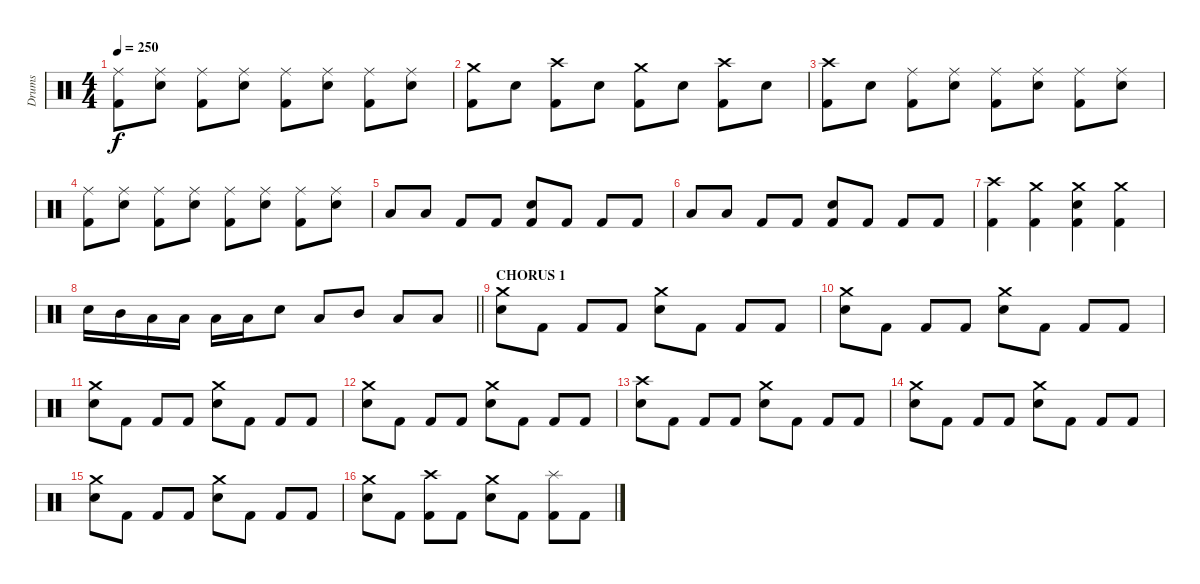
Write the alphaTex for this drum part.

\track ("Drums" "Drums") {instrument percussion}
\staff {score}
\articulation defaults
\ts (4 4)
\tempo 250
\clef neutral
\ks c
("Ride (middle)" "Kick (hit) 2").8{dy f} ("Ride (middle)" "Electric Snare (hit)").8 ("Ride (middle)" "Kick (hit) 2").8 ("Ride (middle)" "Electric Snare (hit)").8 ("Ride (middle)" "Kick (hit) 2").8 ("Ride (middle)" "Electric Snare (hit)").8 ("Ride (middle)" "Kick (hit) 2").8 ("Ride (middle)" "Electric Snare (hit)").8 |
("Crash medium (hit)" "Kick (hit) 2").8 "Electric Snare (hit)".8 ("Crash high (hit)" "Kick (hit) 2").8 "Electric Snare (hit)".8 ("Crash medium (hit)" "Kick (hit) 2").8 "Electric Snare (hit)".8 ("Crash high (hit)" "Kick (hit) 2").8 "Electric Snare (hit)".8 |
("Crash high (hit)" "Kick (hit) 2").8 "Electric Snare (hit)".8 ("Ride (middle)" "Kick (hit) 2").8 ("Ride (middle)" "Electric Snare (hit)").8 ("Ride (middle)" "Kick (hit) 2").8 ("Ride (middle)" "Electric Snare (hit)").8 ("Ride (middle)" "Kick (hit) 2").8 ("Ride (middle)" "Electric Snare (hit)").8 |
("Ride (middle)" "Kick (hit) 2").8 ("Ride (middle)" "Electric Snare (hit)").8 ("Ride (middle)" "Kick (hit) 2").8 ("Ride (middle)" "Electric Snare (hit)").8 ("Ride (middle)" "Kick (hit) 2").8 ("Ride (middle)" "Electric Snare (hit)").8 ("Ride (middle)" "Kick (hit) 2").8 ("Ride (middle)" "Electric Snare (hit)").8 |
"Low Tom (hit)".8 "Low Floor Tom (hit)".8 "Kick (hit) 2".8 "Kick (hit) 2".8 ("Electric Snare (hit)" "Kick (hit) 2").8 "Kick (hit) 2".8 "Kick (hit) 2".8 "Kick (hit) 2".8 |
"Low Tom (hit)".8 "Low Floor Tom (hit)".8 "Kick (hit) 2".8 "Kick (hit) 2".8 ("Electric Snare (hit)" "Kick (hit) 2").8 "Kick (hit) 2".8 "Kick (hit) 2".8 "Kick (hit) 2".8 |
("Crash high (hit)" "Kick (hit) 2").4 ("Crash medium (hit)" "Kick (hit) 2").4 ("Crash medium (hit)" "Electric Snare (hit)" "Kick (hit) 2").4 ("Crash medium (hit)" "Kick (hit) 2").4 |
\barLineRight lightlight "Electric Snare (hit)".16 "Mid Tom (hit)".16 "Low Floor Tom (hit)".16 "Low Floor Tom (hit)".16 "Low Tom (hit)".16 "Low Tom (hit)".16 "Electric Snare (hit)".8 "Low Floor Tom (hit)".8 "Mid Tom (hit)".8 "Low Tom (hit)".8 "Low Floor Tom (hit)".8
|
\section ("" "CHORUS 1")
("Crash medium (hit)" "Electric Snare (hit)").8 "Kick (hit) 2".8 "Kick (hit) 2".8 "Kick (hit) 2".8 ("Crash medium (hit)" "Electric Snare (hit)").8 "Kick (hit) 2".8 "Kick (hit) 2".8 "Kick (hit) 2".8 |
("Crash medium (hit)" "Electric Snare (hit)").8 "Kick (hit) 2".8 "Kick (hit) 2".8 "Kick (hit) 2".8 ("Crash medium (hit)" "Electric Snare (hit)").8 "Kick (hit) 2".8 "Kick (hit) 2".8 "Kick (hit) 2".8 |
("Crash medium (hit)" "Electric Snare (hit)").8 "Kick (hit) 2".8 "Kick (hit) 2".8 "Kick (hit) 2".8 ("Crash medium (hit)" "Electric Snare (hit)").8 "Kick (hit) 2".8 "Kick (hit) 2".8 "Kick (hit) 2".8 |
("Crash medium (hit)" "Electric Snare (hit)").8 "Kick (hit) 2".8 "Kick (hit) 2".8 "Kick (hit) 2".8 ("Crash medium (hit)" "Electric Snare (hit)").8 "Kick (hit) 2".8 "Kick (hit) 2".8 "Kick (hit) 2".8 |
("Crash high (hit)" "Electric Snare (hit)").8 "Kick (hit) 2".8 "Kick (hit) 2".8 "Kick (hit) 2".8 ("Crash medium (hit)" "Electric Snare (hit)").8 "Kick (hit) 2".8 "Kick (hit) 2".8 "Kick (hit) 2".8 |
("Crash medium (hit)" "Electric Snare (hit)").8 "Kick (hit) 2".8 "Kick (hit) 2".8 "Kick (hit) 2".8 ("Crash medium (hit)" "Electric Snare (hit)").8 "Kick (hit) 2".8 "Kick (hit) 2".8 "Kick (hit) 2".8 |
("Crash medium (hit)" "Electric Snare (hit)").8 "Kick (hit) 2".8 "Kick (hit) 2".8 "Kick (hit) 2".8 ("Crash medium (hit)" "Electric Snare (hit)").8 "Kick (hit) 2".8 "Kick (hit) 2".8 "Kick (hit) 2".8 |
("Crash medium (hit)" "Electric Snare (hit)").8 "Kick (hit) 2".8 ("Crash high (hit)" "Kick (hit) 2").8 "Kick (hit) 2".8 ("Crash medium (hit)" "Electric Snare (hit)").8 "Kick (hit) 2".8 ("Splash (hit)" "Kick (hit) 2").8 "Kick (hit) 2".8
